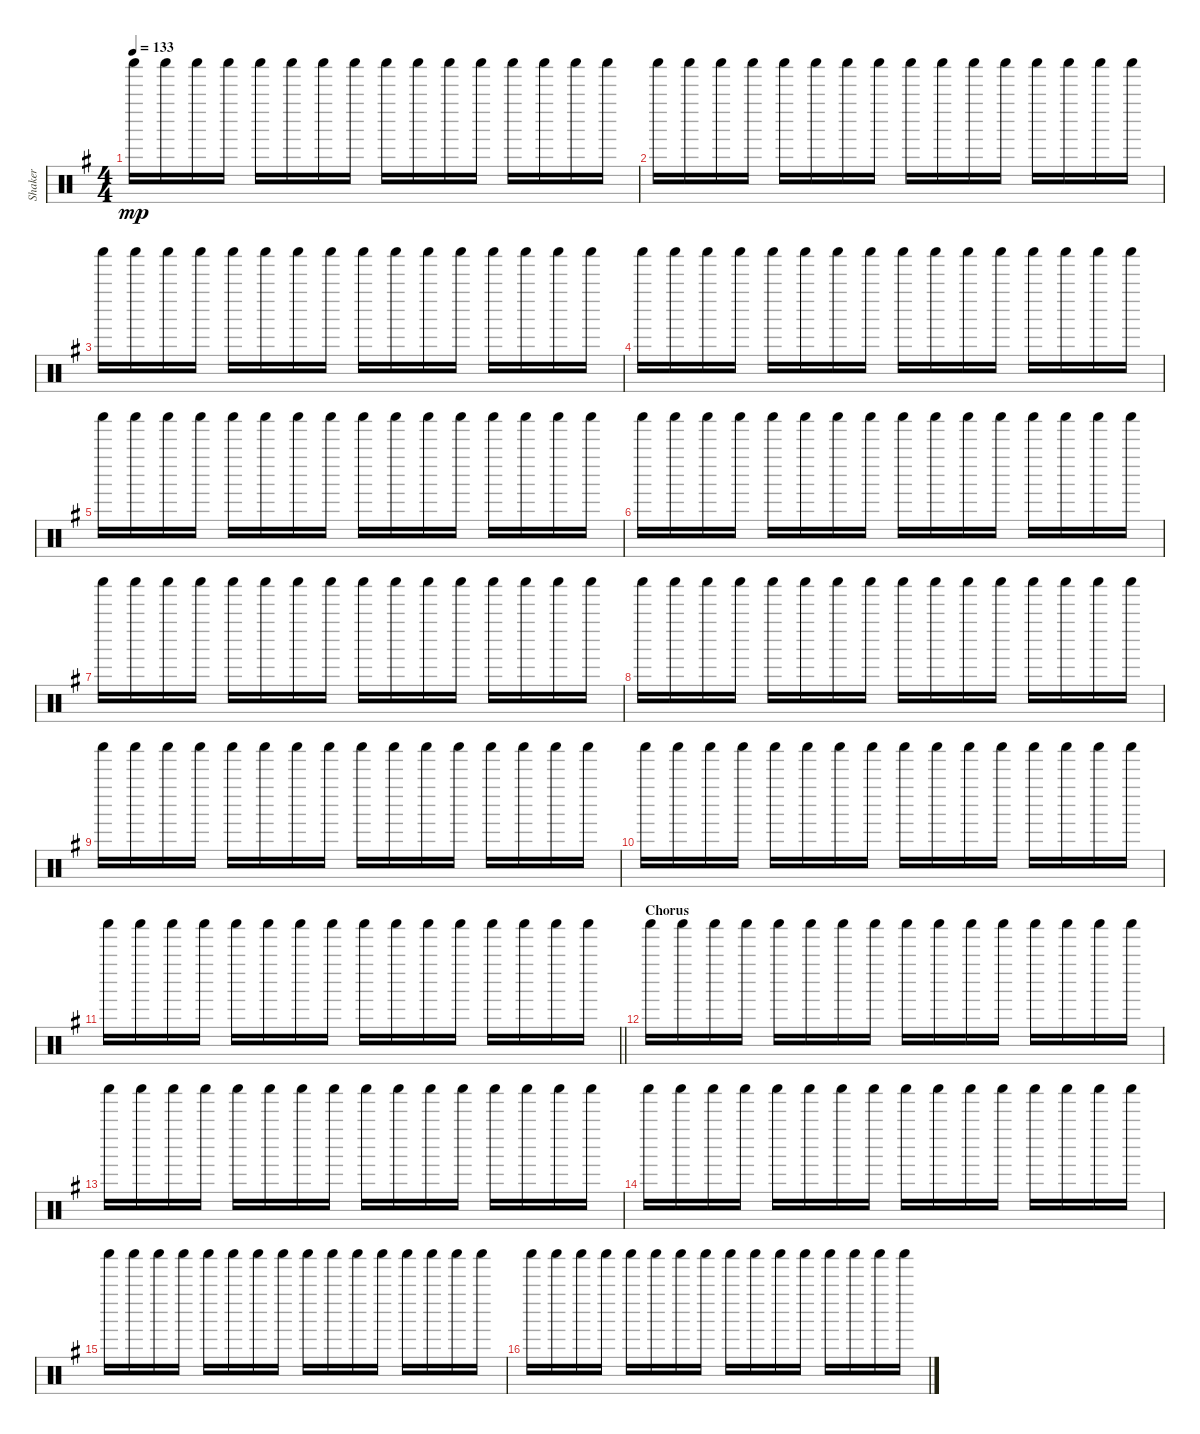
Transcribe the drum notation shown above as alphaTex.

\track ("Shaker" "Shaker") {instrument percussion}
\staff {score}
\articulation defaults
\ts (4 4)
\tempo 133
\clef neutral
\ks g "Shaker (hit)".16{dy mp} "Shaker (hit)".16 "Shaker (hit)".16 "Shaker (hit)".16 "Shaker (hit)".16 "Shaker (hit)".16 "Shaker (hit)".16 "Shaker (hit)".16 "Shaker (hit)".16 "Shaker (hit)".16 "Shaker (hit)".16 "Shaker (hit)".16 "Shaker (hit)".16 "Shaker (hit)".16 "Shaker (hit)".16 "Shaker (hit)".16
|
"Shaker (hit)".16 "Shaker (hit)".16 "Shaker (hit)".16 "Shaker (hit)".16 "Shaker (hit)".16 "Shaker (hit)".16 "Shaker (hit)".16 "Shaker (hit)".16 "Shaker (hit)".16 "Shaker (hit)".16 "Shaker (hit)".16 "Shaker (hit)".16 "Shaker (hit)".16 "Shaker (hit)".16 "Shaker (hit)".16 "Shaker (hit)".16 |
"Shaker (hit)".16 "Shaker (hit)".16 "Shaker (hit)".16 "Shaker (hit)".16 "Shaker (hit)".16 "Shaker (hit)".16 "Shaker (hit)".16 "Shaker (hit)".16 "Shaker (hit)".16 "Shaker (hit)".16 "Shaker (hit)".16 "Shaker (hit)".16 "Shaker (hit)".16 "Shaker (hit)".16 "Shaker (hit)".16 "Shaker (hit)".16 |
"Shaker (hit)".16 "Shaker (hit)".16 "Shaker (hit)".16 "Shaker (hit)".16 "Shaker (hit)".16 "Shaker (hit)".16 "Shaker (hit)".16 "Shaker (hit)".16 "Shaker (hit)".16 "Shaker (hit)".16 "Shaker (hit)".16 "Shaker (hit)".16 "Shaker (hit)".16 "Shaker (hit)".16 "Shaker (hit)".16 "Shaker (hit)".16 |
"Shaker (hit)".16 "Shaker (hit)".16 "Shaker (hit)".16 "Shaker (hit)".16 "Shaker (hit)".16 "Shaker (hit)".16 "Shaker (hit)".16 "Shaker (hit)".16 "Shaker (hit)".16 "Shaker (hit)".16 "Shaker (hit)".16 "Shaker (hit)".16 "Shaker (hit)".16 "Shaker (hit)".16 "Shaker (hit)".16 "Shaker (hit)".16 |
"Shaker (hit)".16 "Shaker (hit)".16 "Shaker (hit)".16 "Shaker (hit)".16 "Shaker (hit)".16 "Shaker (hit)".16 "Shaker (hit)".16 "Shaker (hit)".16 "Shaker (hit)".16 "Shaker (hit)".16 "Shaker (hit)".16 "Shaker (hit)".16 "Shaker (hit)".16 "Shaker (hit)".16 "Shaker (hit)".16 "Shaker (hit)".16 |
"Shaker (hit)".16 "Shaker (hit)".16 "Shaker (hit)".16 "Shaker (hit)".16 "Shaker (hit)".16 "Shaker (hit)".16 "Shaker (hit)".16 "Shaker (hit)".16 "Shaker (hit)".16 "Shaker (hit)".16 "Shaker (hit)".16 "Shaker (hit)".16 "Shaker (hit)".16 "Shaker (hit)".16 "Shaker (hit)".16 "Shaker (hit)".16 |
"Shaker (hit)".16 "Shaker (hit)".16 "Shaker (hit)".16 "Shaker (hit)".16 "Shaker (hit)".16 "Shaker (hit)".16 "Shaker (hit)".16 "Shaker (hit)".16 "Shaker (hit)".16 "Shaker (hit)".16 "Shaker (hit)".16 "Shaker (hit)".16 "Shaker (hit)".16 "Shaker (hit)".16 "Shaker (hit)".16 "Shaker (hit)".16 |
"Shaker (hit)".16 "Shaker (hit)".16 "Shaker (hit)".16 "Shaker (hit)".16 "Shaker (hit)".16 "Shaker (hit)".16 "Shaker (hit)".16 "Shaker (hit)".16 "Shaker (hit)".16 "Shaker (hit)".16 "Shaker (hit)".16 "Shaker (hit)".16 "Shaker (hit)".16 "Shaker (hit)".16 "Shaker (hit)".16 "Shaker (hit)".16 |
"Shaker (hit)".16 "Shaker (hit)".16 "Shaker (hit)".16 "Shaker (hit)".16 "Shaker (hit)".16 "Shaker (hit)".16 "Shaker (hit)".16 "Shaker (hit)".16 "Shaker (hit)".16 "Shaker (hit)".16 "Shaker (hit)".16 "Shaker (hit)".16 "Shaker (hit)".16 "Shaker (hit)".16 "Shaker (hit)".16 "Shaker (hit)".16 |
\barLineRight lightlight "Shaker (hit)".16 "Shaker (hit)".16 "Shaker (hit)".16 "Shaker (hit)".16 "Shaker (hit)".16 "Shaker (hit)".16 "Shaker (hit)".16 "Shaker (hit)".16 "Shaker (hit)".16 "Shaker (hit)".16 "Shaker (hit)".16 "Shaker (hit)".16 "Shaker (hit)".16 "Shaker (hit)".16 "Shaker (hit)".16 "Shaker (hit)".16
|
\section ("" "Chorus")
"Shaker (hit)".16 "Shaker (hit)".16 "Shaker (hit)".16 "Shaker (hit)".16 "Shaker (hit)".16 "Shaker (hit)".16 "Shaker (hit)".16 "Shaker (hit)".16 "Shaker (hit)".16 "Shaker (hit)".16 "Shaker (hit)".16 "Shaker (hit)".16 "Shaker (hit)".16 "Shaker (hit)".16 "Shaker (hit)".16 "Shaker (hit)".16 |
"Shaker (hit)".16 "Shaker (hit)".16 "Shaker (hit)".16 "Shaker (hit)".16 "Shaker (hit)".16 "Shaker (hit)".16 "Shaker (hit)".16 "Shaker (hit)".16 "Shaker (hit)".16 "Shaker (hit)".16 "Shaker (hit)".16 "Shaker (hit)".16 "Shaker (hit)".16 "Shaker (hit)".16 "Shaker (hit)".16 "Shaker (hit)".16 |
"Shaker (hit)".16 "Shaker (hit)".16 "Shaker (hit)".16 "Shaker (hit)".16 "Shaker (hit)".16 "Shaker (hit)".16 "Shaker (hit)".16 "Shaker (hit)".16 "Shaker (hit)".16 "Shaker (hit)".16 "Shaker (hit)".16 "Shaker (hit)".16 "Shaker (hit)".16 "Shaker (hit)".16 "Shaker (hit)".16 "Shaker (hit)".16 |
"Shaker (hit)".16 "Shaker (hit)".16 "Shaker (hit)".16 "Shaker (hit)".16 "Shaker (hit)".16 "Shaker (hit)".16 "Shaker (hit)".16 "Shaker (hit)".16 "Shaker (hit)".16 "Shaker (hit)".16 "Shaker (hit)".16 "Shaker (hit)".16 "Shaker (hit)".16 "Shaker (hit)".16 "Shaker (hit)".16 "Shaker (hit)".16 |
"Shaker (hit)".16 "Shaker (hit)".16 "Shaker (hit)".16 "Shaker (hit)".16 "Shaker (hit)".16 "Shaker (hit)".16 "Shaker (hit)".16 "Shaker (hit)".16 "Shaker (hit)".16 "Shaker (hit)".16 "Shaker (hit)".16 "Shaker (hit)".16 "Shaker (hit)".16 "Shaker (hit)".16 "Shaker (hit)".16 "Shaker (hit)".16
